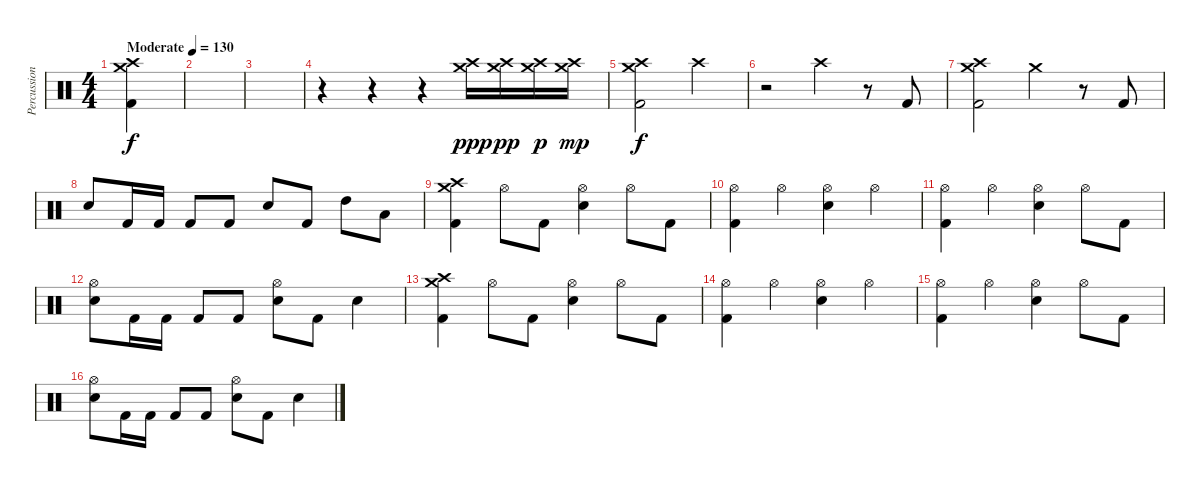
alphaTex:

\track ("Percussion" "Percussion") {instrument percussion}
\staff {score}
\articulation defaults
\ts (4 4)
\tempo (130 "Moderate")
\clef neutral
\ks c
("Crash medium (hit)" "Crash high (hit)" "Kick (hit) 2").4{dy f} |
|
|
r.4 r.4 r.4 ("Crash medium (hit)" "Crash high (hit)").16{dy ppp} ("Crash medium (hit)" "Crash high (hit)").16{dy pp} ("Crash medium (hit)" "Crash high (hit)").16{dy p} ("Crash medium (hit)" "Crash high (hit)").16{dy mp} |
("Crash medium (hit)" "Crash high (hit)" "Kick (hit) 2").2{dy f} "Crash high (hit)".4 |
r.2 "Crash high (hit)".4 r.8 "Kick (hit) 2".8 |
("Crash medium (hit)" "Crash high (hit)" "Kick (hit) 2").2 "Crash medium (hit)".4 r.8 "Kick (hit) 2".8 |
"Electric Snare (hit)".8 "Kick (hit) 2".16 "Kick (hit) 2".16 "Kick (hit) 2".8 "Kick (hit) 2".8 "Electric Snare (hit)".8 "Kick (hit) 2".8 "High Tom (hit)".8 "Low Tom (hit)".8 |
("Crash medium (hit)" "Crash high (hit)" "Kick (hit) 2").4 "Hi-Hat (open)".8 "Kick (hit) 2".8 ("Hi-Hat (open)" "Electric Snare (hit)").4 "Hi-Hat (open)".8 "Kick (hit) 2".8 |
("Hi-Hat (open)" "Kick (hit) 2").4 "Hi-Hat (open)".4 ("Hi-Hat (open)" "Electric Snare (hit)").4 "Hi-Hat (open)".4 |
("Hi-Hat (open)" "Kick (hit) 2").4 "Hi-Hat (open)".4 ("Hi-Hat (open)" "Electric Snare (hit)").4 "Hi-Hat (open)".8 "Kick (hit) 2".8 |
("Hi-Hat (open)" "Electric Snare (hit)").8 "Kick (hit) 2".16 "Kick (hit) 2".16 "Kick (hit) 2".8 "Kick (hit) 2".8 ("Hi-Hat (open)" "Electric Snare (hit)").8 "Kick (hit) 2".8 "Electric Snare (hit)".4 |
("Crash medium (hit)" "Crash high (hit)" "Kick (hit) 2").4 "Hi-Hat (open)".8 "Kick (hit) 2".8 ("Hi-Hat (open)" "Electric Snare (hit)").4 "Hi-Hat (open)".8 "Kick (hit) 2".8 |
("Hi-Hat (open)" "Kick (hit) 2").4 "Hi-Hat (open)".4 ("Hi-Hat (open)" "Electric Snare (hit)").4 "Hi-Hat (open)".4 |
("Hi-Hat (open)" "Kick (hit) 2").4 "Hi-Hat (open)".4 ("Hi-Hat (open)" "Electric Snare (hit)").4 "Hi-Hat (open)".8 "Kick (hit) 2".8 |
("Hi-Hat (open)" "Electric Snare (hit)").8 "Kick (hit) 2".16 "Kick (hit) 2".16 "Kick (hit) 2".8 "Kick (hit) 2".8 ("Hi-Hat (open)" "Electric Snare (hit)").8 "Kick (hit) 2".8 "Electric Snare (hit)".4
